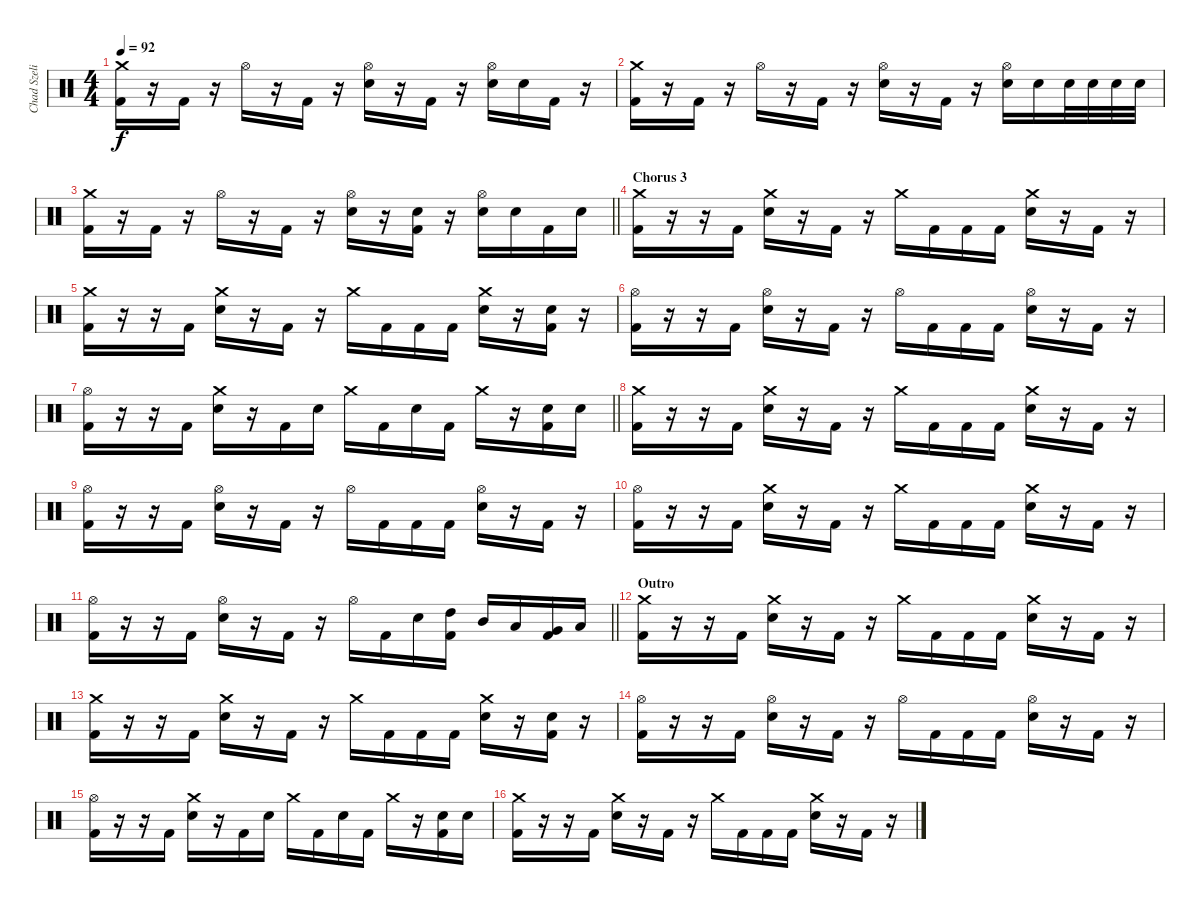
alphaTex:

\track ("Chad Szeliga" "Chad Szeli") {instrument percussion}
\staff {score}
\articulation defaults
\ts (4 4)
\tempo 92
\clef neutral
\ks c
("Crash medium (hit)" "Kick (hit) 2").16{dy f} r.16 "Kick (hit) 2".16 r.16 "Hi-Hat (open)".16 r.16 "Kick (hit) 2".16 r.16 ("Hi-Hat (open)" "Electric Snare (hit)").16 r.16 "Kick (hit) 2".16 r.16 ("Hi-Hat (open)" "Electric Snare (hit)").16 "Electric Snare (hit)".16 "Kick (hit) 2".16 r.16 |
("Crash medium (hit)" "Kick (hit) 2").16 r.16 "Kick (hit) 2".16 r.16 "Hi-Hat (open)".16 r.16 "Kick (hit) 2".16 r.16 ("Hi-Hat (open)" "Electric Snare (hit)").16 r.16 "Kick (hit) 2".16 r.16 ("Hi-Hat (open)" "Electric Snare (hit)").16 "Electric Snare (hit)".16 "Electric Snare (hit)".32 "Electric Snare (hit)".32 "Electric Snare (hit)".32 "Electric Snare (hit)".32 |
\barLineRight lightlight
("Crash medium (hit)" "Kick (hit) 2").16 r.16 "Kick (hit) 2".16 r.16 "Hi-Hat (open)".16 r.16 "Kick (hit) 2".16 r.16 ("Hi-Hat (open)" "Electric Snare (hit)").16 r.16 ("Electric Snare (hit)" "Kick (hit) 2").16 r.16 ("Hi-Hat (open)" "Electric Snare (hit)").16 "Electric Snare (hit)".16 "Kick (hit) 2".16 "Electric Snare (hit)".16 |
\section ("" "Chorus 3")
("Crash medium (hit)" "Kick (hit) 2").16 r.16 r.16 "Kick (hit) 2".16 ("Crash medium (hit)" "Electric Snare (hit)").16 r.16 "Kick (hit) 2".16 r.16 "Crash medium (hit)".16 "Kick (hit) 2".16 "Kick (hit) 2".16 "Kick (hit) 2".16 ("Crash medium (hit)" "Electric Snare (hit)").16 r.16 "Kick (hit) 2".16 r.16 |
("Crash medium (hit)" "Kick (hit) 2").16 r.16 r.16 "Kick (hit) 2".16 ("Crash medium (hit)" "Electric Snare (hit)").16 r.16 "Kick (hit) 2".16 r.16 "Crash medium (hit)".16 "Kick (hit) 2".16 "Kick (hit) 2".16 "Kick (hit) 2".16 ("Crash medium (hit)" "Electric Snare (hit)").16 r.16 ("Electric Snare (hit)" "Kick (hit) 2").16 r.16 |
("Hi-Hat (open)" "Kick (hit) 2").16 r.16 r.16 "Kick (hit) 2".16 ("Hi-Hat (open)" "Electric Snare (hit)").16 r.16 "Kick (hit) 2".16 r.16 "Hi-Hat (open)".16 "Kick (hit) 2".16 "Kick (hit) 2".16 "Kick (hit) 2".16 ("Hi-Hat (open)" "Electric Snare (hit)").16 r.16 "Kick (hit) 2".16 r.16 |
\barLineRight lightlight
("Hi-Hat (open)" "Kick (hit) 2").16 r.16 r.16 "Kick (hit) 2".16 ("Crash medium (hit)" "Electric Snare (hit)").16 r.16 "Kick (hit) 2".16 "Electric Snare (hit)".16 "Crash medium (hit)".16 "Kick (hit) 2".16 "Electric Snare (hit)".16 "Kick (hit) 2".16 "Crash medium (hit)".16 r.16 ("Electric Snare (hit)" "Kick (hit) 2").16 "Electric Snare (hit)".16 |
("Crash medium (hit)" "Kick (hit) 2").16 r.16 r.16 "Kick (hit) 2".16 ("Crash medium (hit)" "Electric Snare (hit)").16 r.16 "Kick (hit) 2".16 r.16 "Crash medium (hit)".16 "Kick (hit) 2".16 "Kick (hit) 2".16 "Kick (hit) 2".16 ("Crash medium (hit)" "Electric Snare (hit)").16 r.16 "Kick (hit) 2".16 r.16 |
("Hi-Hat (open)" "Kick (hit) 2").16 r.16 r.16 "Kick (hit) 2".16 ("Hi-Hat (open)" "Electric Snare (hit)").16 r.16 "Kick (hit) 2".16 r.16 "Hi-Hat (open)".16 "Kick (hit) 2".16 "Kick (hit) 2".16 "Kick (hit) 2".16 ("Hi-Hat (open)" "Electric Snare (hit)").16 r.16 "Kick (hit) 2".16 r.16 |
("Hi-Hat (open)" "Kick (hit) 2").16 r.16 r.16 "Kick (hit) 2".16 ("Crash medium (hit)" "Electric Snare (hit)").16 r.16 "Kick (hit) 2".16 r.16 "Crash medium (hit)".16 "Kick (hit) 2".16 "Kick (hit) 2".16 "Kick (hit) 2".16 ("Crash medium (hit)" "Electric Snare (hit)").16 r.16 "Kick (hit) 2".16 r.16 |
\barLineRight lightlight
("Hi-Hat (open)" "Kick (hit) 2").16 r.16 r.16 "Kick (hit) 2".16 ("Hi-Hat (open)" "Electric Snare (hit)").16 r.16 "Kick (hit) 2".16 r.16 "Hi-Hat (open)".16 "Kick (hit) 2".16 "Electric Snare (hit)".16 ("High Tom (hit)" "Kick (hit) 2").16 "Mid Tom (hit)".16 "Low Tom (hit)".16 ("Very Low Tom (hit)" "Kick (hit) 2").16 "Low Floor Tom (hit)".16 |
\section ("" "Outro")
("Crash medium (hit)" "Kick (hit) 2").16 r.16 r.16 "Kick (hit) 2".16 ("Crash medium (hit)" "Electric Snare (hit)").16 r.16 "Kick (hit) 2".16 r.16 "Crash medium (hit)".16 "Kick (hit) 2".16 "Kick (hit) 2".16 "Kick (hit) 2".16 ("Crash medium (hit)" "Electric Snare (hit)").16 r.16 "Kick (hit) 2".16 r.16 |
("Crash medium (hit)" "Kick (hit) 2").16 r.16 r.16 "Kick (hit) 2".16 ("Crash medium (hit)" "Electric Snare (hit)").16 r.16 "Kick (hit) 2".16 r.16 "Crash medium (hit)".16 "Kick (hit) 2".16 "Kick (hit) 2".16 "Kick (hit) 2".16 ("Crash medium (hit)" "Electric Snare (hit)").16 r.16 ("Electric Snare (hit)" "Kick (hit) 2").16 r.16 |
("Hi-Hat (open)" "Kick (hit) 2").16 r.16 r.16 "Kick (hit) 2".16 ("Hi-Hat (open)" "Electric Snare (hit)").16 r.16 "Kick (hit) 2".16 r.16 "Hi-Hat (open)".16 "Kick (hit) 2".16 "Kick (hit) 2".16 "Kick (hit) 2".16 ("Hi-Hat (open)" "Electric Snare (hit)").16 r.16 "Kick (hit) 2".16 r.16 |
("Hi-Hat (open)" "Kick (hit) 2").16 r.16 r.16 "Kick (hit) 2".16 ("Crash medium (hit)" "Electric Snare (hit)").16 r.16 "Kick (hit) 2".16 "Electric Snare (hit)".16 "Crash medium (hit)".16 "Kick (hit) 2".16 "Electric Snare (hit)".16 "Kick (hit) 2".16 "Crash medium (hit)".16 r.16 ("Electric Snare (hit)" "Kick (hit) 2").16 "Electric Snare (hit)".16 |
("Crash medium (hit)" "Kick (hit) 2").16 r.16 r.16 "Kick (hit) 2".16 ("Crash medium (hit)" "Electric Snare (hit)").16 r.16 "Kick (hit) 2".16 r.16 "Crash medium (hit)".16 "Kick (hit) 2".16 "Kick (hit) 2".16 "Kick (hit) 2".16 ("Crash medium (hit)" "Electric Snare (hit)").16 r.16 "Kick (hit) 2".16 r.16
